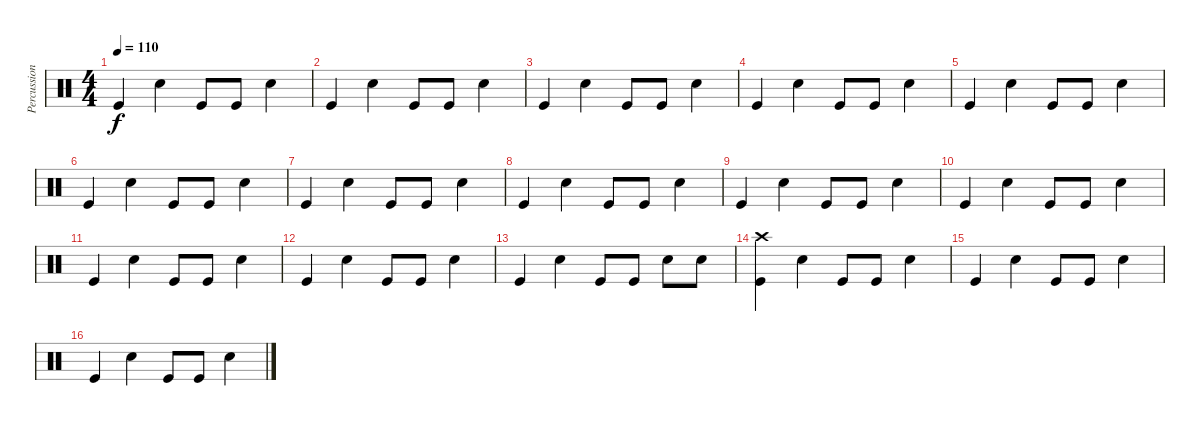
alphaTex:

\track ("Percussion" "Percussion") {instrument percussion}
\staff {score}
\articulation defaults
\ts (4 4)
\tempo 110
\clef neutral
\ks c "Kick (hit)".4{dy f} "Snare (hit) 2".4 "Kick (hit)".8 "Kick (hit)".8 "Snare (hit) 2".4
|
"Kick (hit)".4 "Snare (hit) 2".4 "Kick (hit)".8 "Kick (hit)".8 "Snare (hit) 2".4 |
"Kick (hit)".4 "Snare (hit) 2".4 "Kick (hit)".8 "Kick (hit)".8 "Snare (hit) 2".4 |
"Kick (hit)".4 "Snare (hit) 2".4 "Kick (hit)".8 "Kick (hit)".8 "Snare (hit) 2".4 |
"Kick (hit)".4 "Snare (hit) 2".4 "Kick (hit)".8 "Kick (hit)".8 "Snare (hit) 2".4 |
"Kick (hit)".4 "Snare (hit) 2".4 "Kick (hit)".8 "Kick (hit)".8 "Snare (hit) 2".4 |
"Kick (hit)".4 "Snare (hit) 2".4 "Kick (hit)".8 "Kick (hit)".8 "Snare (hit) 2".4 |
"Kick (hit)".4 "Snare (hit) 2".4 "Kick (hit)".8 "Kick (hit)".8 "Snare (hit) 2".4 |
"Kick (hit)".4 "Snare (hit) 2".4 "Kick (hit)".8 "Kick (hit)".8 "Snare (hit) 2".4 |
"Kick (hit)".4 "Snare (hit) 2".4 "Kick (hit)".8 "Kick (hit)".8 "Snare (hit) 2".4 |
"Kick (hit)".4 "Snare (hit) 2".4 "Kick (hit)".8 "Kick (hit)".8 "Snare (hit) 2".4 |
"Kick (hit)".4 "Snare (hit) 2".4 "Kick (hit)".8 "Kick (hit)".8 "Snare (hit) 2".4 |
"Kick (hit)".4 "Snare (hit) 2".4 "Kick (hit)".8 "Kick (hit)".8 "Snare (hit) 2".8 "Snare (hit) 2".8 |
("Crash high (hit)" "Kick (hit)").4 "Snare (hit) 2".4 "Kick (hit)".8 "Kick (hit)".8 "Snare (hit) 2".4 |
"Kick (hit)".4 "Snare (hit) 2".4 "Kick (hit)".8 "Kick (hit)".8 "Snare (hit) 2".4 |
"Kick (hit)".4 "Snare (hit) 2".4 "Kick (hit)".8 "Kick (hit)".8 "Snare (hit) 2".4
